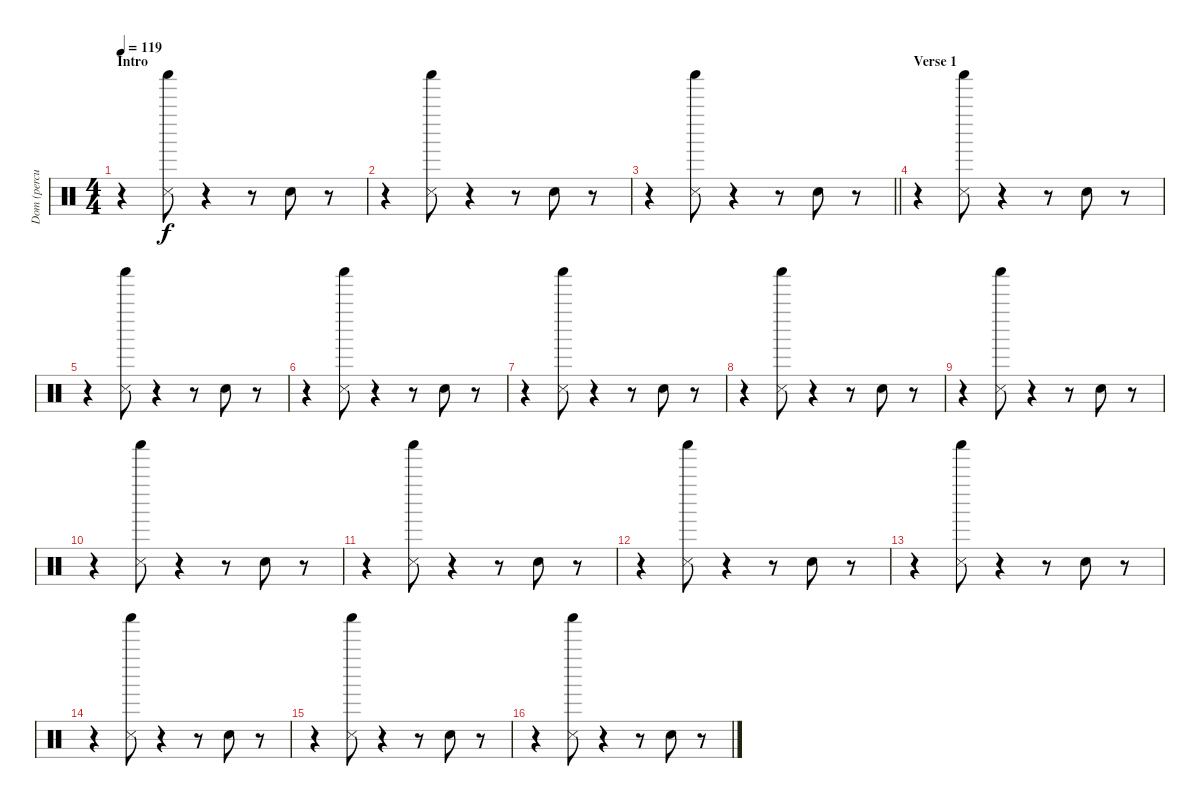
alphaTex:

\track ("Dom (percussions)" "Dom (percu") {instrument percussion}
\staff {score}
\articulation defaults
\ts (4 4)
\section ("" "Intro")
\tempo 119
\clef neutral
\ks c
r.4{dy f} ("Shaker (hit)" "Metronome (hit)").8 r.4 r.8 "Hand Clap (hit)".8 r.8 |
r.4 ("Shaker (hit)" "Metronome (hit)").8 r.4 r.8 "Hand Clap (hit)".8 r.8 |
\barLineRight lightlight
r.4 ("Shaker (hit)" "Metronome (hit)").8 r.4 r.8 "Hand Clap (hit)".8 r.8 |
\section ("" "Verse 1")
r.4 ("Shaker (hit)" "Metronome (hit)").8 r.4 r.8 "Hand Clap (hit)".8 r.8 |
r.4 ("Shaker (hit)" "Metronome (hit)").8 r.4 r.8 "Hand Clap (hit)".8 r.8 |
r.4 ("Shaker (hit)" "Metronome (hit)").8 r.4 r.8 "Hand Clap (hit)".8 r.8 |
r.4 ("Shaker (hit)" "Metronome (hit)").8 r.4 r.8 "Hand Clap (hit)".8 r.8 |
r.4 ("Shaker (hit)" "Metronome (hit)").8 r.4 r.8 "Hand Clap (hit)".8 r.8 |
r.4 ("Shaker (hit)" "Metronome (hit)").8 r.4 r.8 "Hand Clap (hit)".8 r.8 |
r.4 ("Shaker (hit)" "Metronome (hit)").8 r.4 r.8 "Hand Clap (hit)".8 r.8 |
r.4 ("Shaker (hit)" "Metronome (hit)").8 r.4 r.8 "Hand Clap (hit)".8 r.8 |
r.4 ("Shaker (hit)" "Metronome (hit)").8 r.4 r.8 "Hand Clap (hit)".8 r.8 |
r.4 ("Shaker (hit)" "Metronome (hit)").8 r.4 r.8 "Hand Clap (hit)".8 r.8 |
r.4 ("Shaker (hit)" "Metronome (hit)").8 r.4 r.8 "Hand Clap (hit)".8 r.8 |
r.4 ("Shaker (hit)" "Metronome (hit)").8 r.4 r.8 "Hand Clap (hit)".8 r.8 |
r.4 ("Shaker (hit)" "Metronome (hit)").8 r.4 r.8 "Hand Clap (hit)".8 r.8
